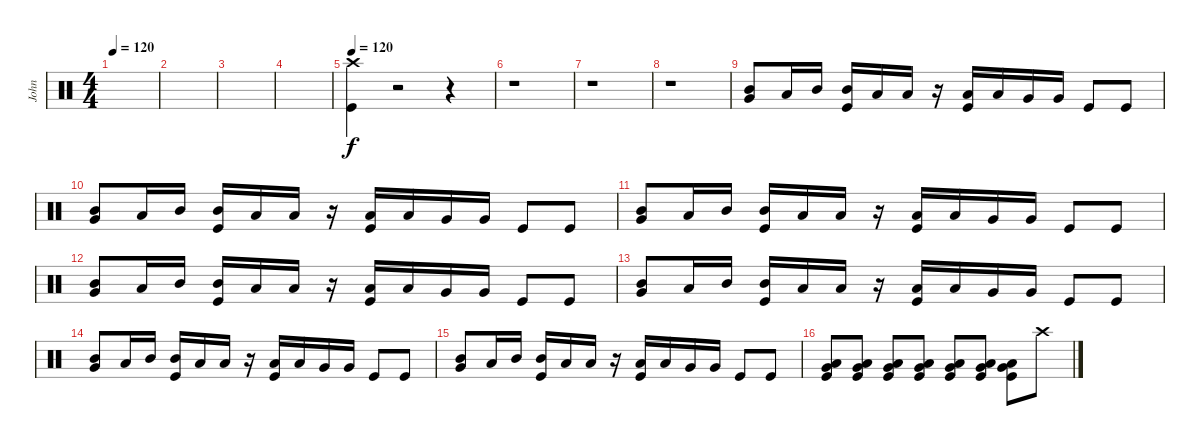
\track ("John" "John") {instrument percussion}
\staff {score}
\articulation defaults
\ts (4 4)
\tempo 120
\clef neutral
\ks c
|
|
|
|
\tempo 120
("Crash high (hit)" "Kick (hit)").4 r.2 r.4 |
r.1 |
r.1 |
r.1 |
("Mid Tom (hit)" "Very Low Tom (hit)").8 "Low Tom (hit)".16 "Mid Tom (hit)".16 ("Mid Tom (hit)" "Kick (hit)").16 "Low Tom (hit)".16 "Low Tom (hit)".16 r.16 ("Low Tom (hit)" "Kick (hit)").16 "Low Tom (hit)".16 "Very Low Tom (hit)".16 "Very Low Tom (hit)".16 "Kick (hit)".8 "Kick (hit)".8 |
("Mid Tom (hit)" "Very Low Tom (hit)").8 "Low Tom (hit)".16 "Mid Tom (hit)".16 ("Mid Tom (hit)" "Kick (hit)").16 "Low Tom (hit)".16 "Low Tom (hit)".16 r.16 ("Low Tom (hit)" "Kick (hit)").16 "Low Tom (hit)".16 "Very Low Tom (hit)".16 "Very Low Tom (hit)".16 "Kick (hit)".8 "Kick (hit)".8 |
("Mid Tom (hit)" "Very Low Tom (hit)").8 "Low Tom (hit)".16 "Mid Tom (hit)".16 ("Mid Tom (hit)" "Kick (hit)").16 "Low Tom (hit)".16 "Low Tom (hit)".16 r.16 ("Low Tom (hit)" "Kick (hit)").16 "Low Tom (hit)".16 "Very Low Tom (hit)".16 "Very Low Tom (hit)".16 "Kick (hit)".8 "Kick (hit)".8 |
("Mid Tom (hit)" "Very Low Tom (hit)").8 "Low Tom (hit)".16 "Mid Tom (hit)".16 ("Mid Tom (hit)" "Kick (hit)").16 "Low Tom (hit)".16 "Low Tom (hit)".16 r.16 ("Low Tom (hit)" "Kick (hit)").16 "Low Tom (hit)".16 "Very Low Tom (hit)".16 "Very Low Tom (hit)".16 "Kick (hit)".8 "Kick (hit)".8 |
("Mid Tom (hit)" "Very Low Tom (hit)").8 "Low Tom (hit)".16 "Mid Tom (hit)".16 ("Mid Tom (hit)" "Kick (hit)").16 "Low Tom (hit)".16 "Low Tom (hit)".16 r.16 ("Low Tom (hit)" "Kick (hit)").16 "Low Tom (hit)".16 "Very Low Tom (hit)".16 "Very Low Tom (hit)".16 "Kick (hit)".8 "Kick (hit)".8 |
("Mid Tom (hit)" "Very Low Tom (hit)").8 "Low Tom (hit)".16 "Mid Tom (hit)".16 ("Mid Tom (hit)" "Kick (hit)").16 "Low Tom (hit)".16 "Low Tom (hit)".16 r.16 ("Low Tom (hit)" "Kick (hit)").16 "Low Tom (hit)".16 "Very Low Tom (hit)".16 "Very Low Tom (hit)".16 "Kick (hit)".8 "Kick (hit)".8 |
("Mid Tom (hit)" "Very Low Tom (hit)").8 "Low Tom (hit)".16 "Mid Tom (hit)".16 ("Mid Tom (hit)" "Kick (hit)").16 "Low Tom (hit)".16 "Low Tom (hit)".16 r.16 ("Low Tom (hit)" "Kick (hit)").16 "Low Tom (hit)".16 "Very Low Tom (hit)".16 "Very Low Tom (hit)".16 "Kick (hit)".8 "Kick (hit)".8 |
("Very Low Tom (hit)" "Low Tom (hit)" "Kick (hit)").8 ("Very Low Tom (hit)" "Low Tom (hit)" "Kick (hit)").8 ("Very Low Tom (hit)" "Low Tom (hit)" "Kick (hit)").8 ("Very Low Tom (hit)" "Low Tom (hit)" "Kick (hit)").8 ("Very Low Tom (hit)" "Low Tom (hit)" "Kick (hit)").8 ("Very Low Tom (hit)" "Low Tom (hit)" "Kick (hit)").8 ("Very Low Tom (hit)" "Low Tom (hit)" "Kick (hit)").8 "Crash high (hit)".8
